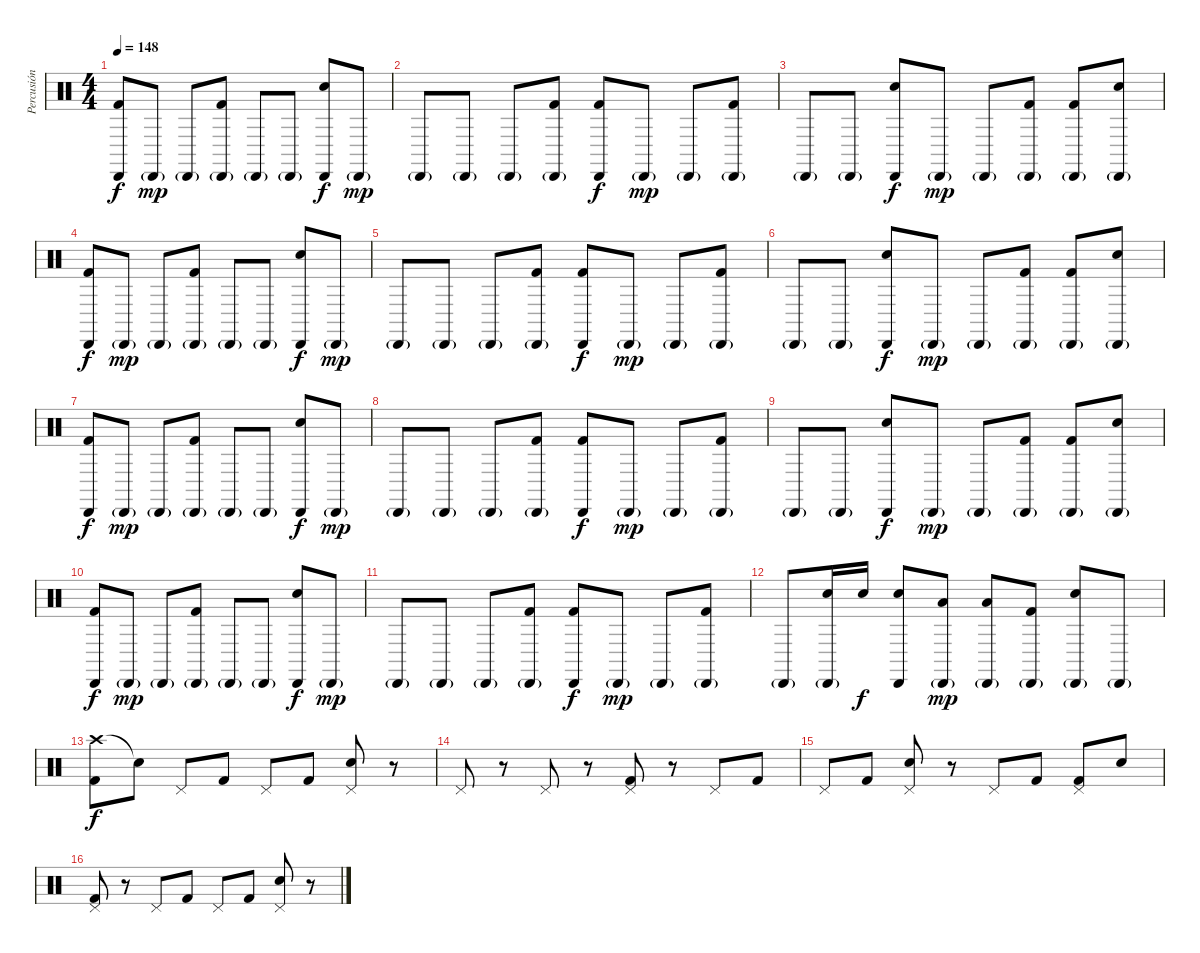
\track ("Percusión" "Percusión") {instrument percussion}
\staff {score}
\articulation defaults
\ts (4 4)
\tempo 148
\clef neutral
\ks c
("Kick (hit) 2" "Cabasa (hit)").8{dy f} "Cabasa (hit)"{g}.8{dy mp} "Cabasa (hit)"{g}.8 ("Kick (hit) 2" "Cabasa (hit)"{g}).8 "Cabasa (hit)"{g}.8 "Cabasa (hit)"{g}.8 ("Electric Snare (hit)" "Cabasa (hit)").8{dy f} "Cabasa (hit)"{g}.8{dy mp} |
"Cabasa (hit)"{g}.8 "Cabasa (hit)"{g}.8 "Cabasa (hit)"{g}.8 ("Kick (hit) 2" "Cabasa (hit)"{g}).8 ("Kick (hit) 2" "Cabasa (hit)").8{dy f} "Cabasa (hit)"{g}.8{dy mp} "Cabasa (hit)"{g}.8 ("Kick (hit) 2" "Cabasa (hit)"{g}).8 |
"Cabasa (hit)"{g}.8 "Cabasa (hit)"{g}.8 ("Electric Snare (hit)" "Cabasa (hit)").8{dy f} "Cabasa (hit)"{g}.8{dy mp} "Cabasa (hit)"{g}.8 ("Kick (hit) 2" "Cabasa (hit)"{g}).8 ("Kick (hit) 2" "Cabasa (hit)"{g}).8 ("Electric Snare (hit)" "Cabasa (hit)"{g}).8 |
("Kick (hit) 2" "Cabasa (hit)").8{dy f} "Cabasa (hit)"{g}.8{dy mp} "Cabasa (hit)"{g}.8 ("Kick (hit) 2" "Cabasa (hit)"{g}).8 "Cabasa (hit)"{g}.8 "Cabasa (hit)"{g}.8 ("Electric Snare (hit)" "Cabasa (hit)").8{dy f} "Cabasa (hit)"{g}.8{dy mp} |
"Cabasa (hit)"{g}.8 "Cabasa (hit)"{g}.8 "Cabasa (hit)"{g}.8 ("Kick (hit) 2" "Cabasa (hit)"{g}).8 ("Kick (hit) 2" "Cabasa (hit)").8{dy f} "Cabasa (hit)"{g}.8{dy mp} "Cabasa (hit)"{g}.8 ("Kick (hit) 2" "Cabasa (hit)"{g}).8 |
"Cabasa (hit)"{g}.8 "Cabasa (hit)"{g}.8 ("Electric Snare (hit)" "Cabasa (hit)").8{dy f} "Cabasa (hit)"{g}.8{dy mp} "Cabasa (hit)"{g}.8 ("Kick (hit) 2" "Cabasa (hit)"{g}).8 ("Kick (hit) 2" "Cabasa (hit)"{g}).8 ("Electric Snare (hit)" "Cabasa (hit)"{g}).8 |
("Kick (hit) 2" "Cabasa (hit)").8{dy f} "Cabasa (hit)"{g}.8{dy mp} "Cabasa (hit)"{g}.8 ("Kick (hit) 2" "Cabasa (hit)"{g}).8 "Cabasa (hit)"{g}.8 "Cabasa (hit)"{g}.8 ("Electric Snare (hit)" "Cabasa (hit)").8{dy f} "Cabasa (hit)"{g}.8{dy mp} |
"Cabasa (hit)"{g}.8 "Cabasa (hit)"{g}.8 "Cabasa (hit)"{g}.8 ("Kick (hit) 2" "Cabasa (hit)"{g}).8 ("Kick (hit) 2" "Cabasa (hit)").8{dy f} "Cabasa (hit)"{g}.8{dy mp} "Cabasa (hit)"{g}.8 ("Kick (hit) 2" "Cabasa (hit)"{g}).8 |
"Cabasa (hit)"{g}.8 "Cabasa (hit)"{g}.8 ("Electric Snare (hit)" "Cabasa (hit)").8{dy f} "Cabasa (hit)"{g}.8{dy mp} "Cabasa (hit)"{g}.8 ("Kick (hit) 2" "Cabasa (hit)"{g}).8 ("Kick (hit) 2" "Cabasa (hit)"{g}).8 ("Electric Snare (hit)" "Cabasa (hit)"{g}).8 |
("Kick (hit) 2" "Cabasa (hit)").8{dy f} "Cabasa (hit)"{g}.8{dy mp} "Cabasa (hit)"{g}.8 ("Kick (hit) 2" "Cabasa (hit)"{g}).8 "Cabasa (hit)"{g}.8 "Cabasa (hit)"{g}.8 ("Electric Snare (hit)" "Cabasa (hit)").8{dy f} "Cabasa (hit)"{g}.8{dy mp} |
"Cabasa (hit)"{g}.8 "Cabasa (hit)"{g}.8 "Cabasa (hit)"{g}.8 ("Kick (hit) 2" "Cabasa (hit)"{g}).8 ("Kick (hit) 2" "Cabasa (hit)").8{dy f} "Cabasa (hit)"{g}.8{dy mp} "Cabasa (hit)"{g}.8 ("Kick (hit) 2" "Cabasa (hit)"{g}).8 |
"Cabasa (hit)"{g}.8 ("Electric Snare (hit)" "Cabasa (hit)"{g}).16 "Electric Snare (hit)".16{dy f} ("Snare (hit) 2" "Cabasa (hit)").8 ("Low Floor Tom (hit)" "Cabasa (hit)"{g}).8{dy mp} ("Low Floor Tom (hit)" "Cabasa (hit)"{g}).8 ("Kick (hit) 2" "Cabasa (hit)"{g}).8 ("Snare (hit) 2" "Cabasa (hit)"{g}).8 "Cabasa (hit)"{g}.8 |
("Crash high (hit)" "Kick (hit) 2").8{dy f} "Snare (hit)"{t}.8 "Pedal Hi-Hat (hit)".8 "Kick (hit) 2".8 "Pedal Hi-Hat (hit)".8 "Kick (hit) 2".8 ("Pedal Hi-Hat (hit)" "Snare (hit) 2").8 r.8 |
"Pedal Hi-Hat (hit)".8 r.8 "Pedal Hi-Hat (hit)".8 r.8 ("Pedal Hi-Hat (hit)" "Kick (hit) 2").8 r.8 "Pedal Hi-Hat (hit)".8 "Kick (hit) 2".8 |
"Pedal Hi-Hat (hit)".8 "Kick (hit) 2".8 ("Pedal Hi-Hat (hit)" "Snare (hit) 2").8 r.8 "Pedal Hi-Hat (hit)".8 "Kick (hit) 2".8 ("Pedal Hi-Hat (hit)" "Kick (hit) 2").8 "Snare (hit) 2".8 |
("Pedal Hi-Hat (hit)" "Kick (hit) 2").8 r.8 "Pedal Hi-Hat (hit)".8 "Kick (hit) 2".8 "Pedal Hi-Hat (hit)".8 "Kick (hit) 2".8 ("Pedal Hi-Hat (hit)" "Snare (hit) 2").8 r.8
